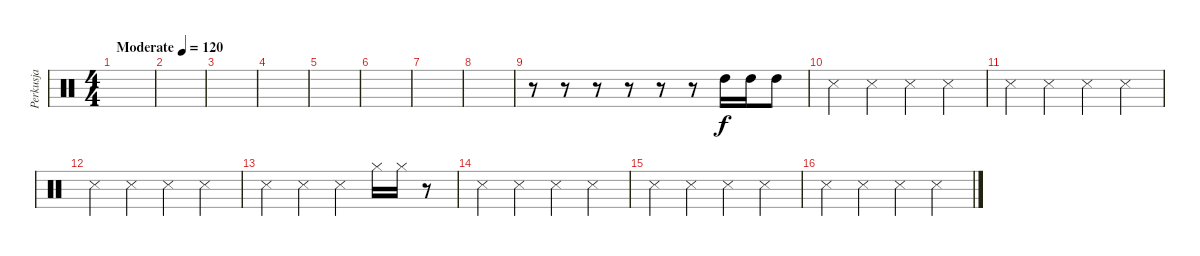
\track ("Perkusja" "Perkusja") {instrument percussion}
\staff {score}
\articulation defaults
\ts (4 4)
\tempo (120 "Moderate")
\clef neutral
\ks c
|
|
|
|
|
|
|
|
r.8 r.8 r.8 r.8 r.8 r.8 "High Tom (hit)".16 "High Tom (hit)".16 "High Tom (hit)".8 |
"Snare (side stick) 3".4 "Snare (side stick) 3".4 "Snare (side stick) 3".4 "Snare (side stick) 3".4 |
"Snare (side stick) 3".4 "Snare (side stick) 3".4 "Snare (side stick) 3".4 "Snare (side stick) 3".4 |
"Snare (side stick) 3".4 "Snare (side stick) 3".4 "Snare (side stick) 3".4 "Snare (side stick) 3".4 |
"Snare (side stick) 3".4 "Snare (side stick) 3".4 "Snare (side stick) 3".4 "Hi-Hat (closed)".16 "Hi-Hat (closed)".16 r.8 |
"Snare (side stick) 3".4 "Snare (side stick) 3".4 "Snare (side stick) 3".4 "Snare (side stick) 3".4 |
"Snare (side stick) 3".4 "Snare (side stick) 3".4 "Snare (side stick) 3".4 "Snare (side stick) 3".4 |
"Snare (side stick) 3".4 "Snare (side stick) 3".4 "Snare (side stick) 3".4 "Snare (side stick) 3".4
